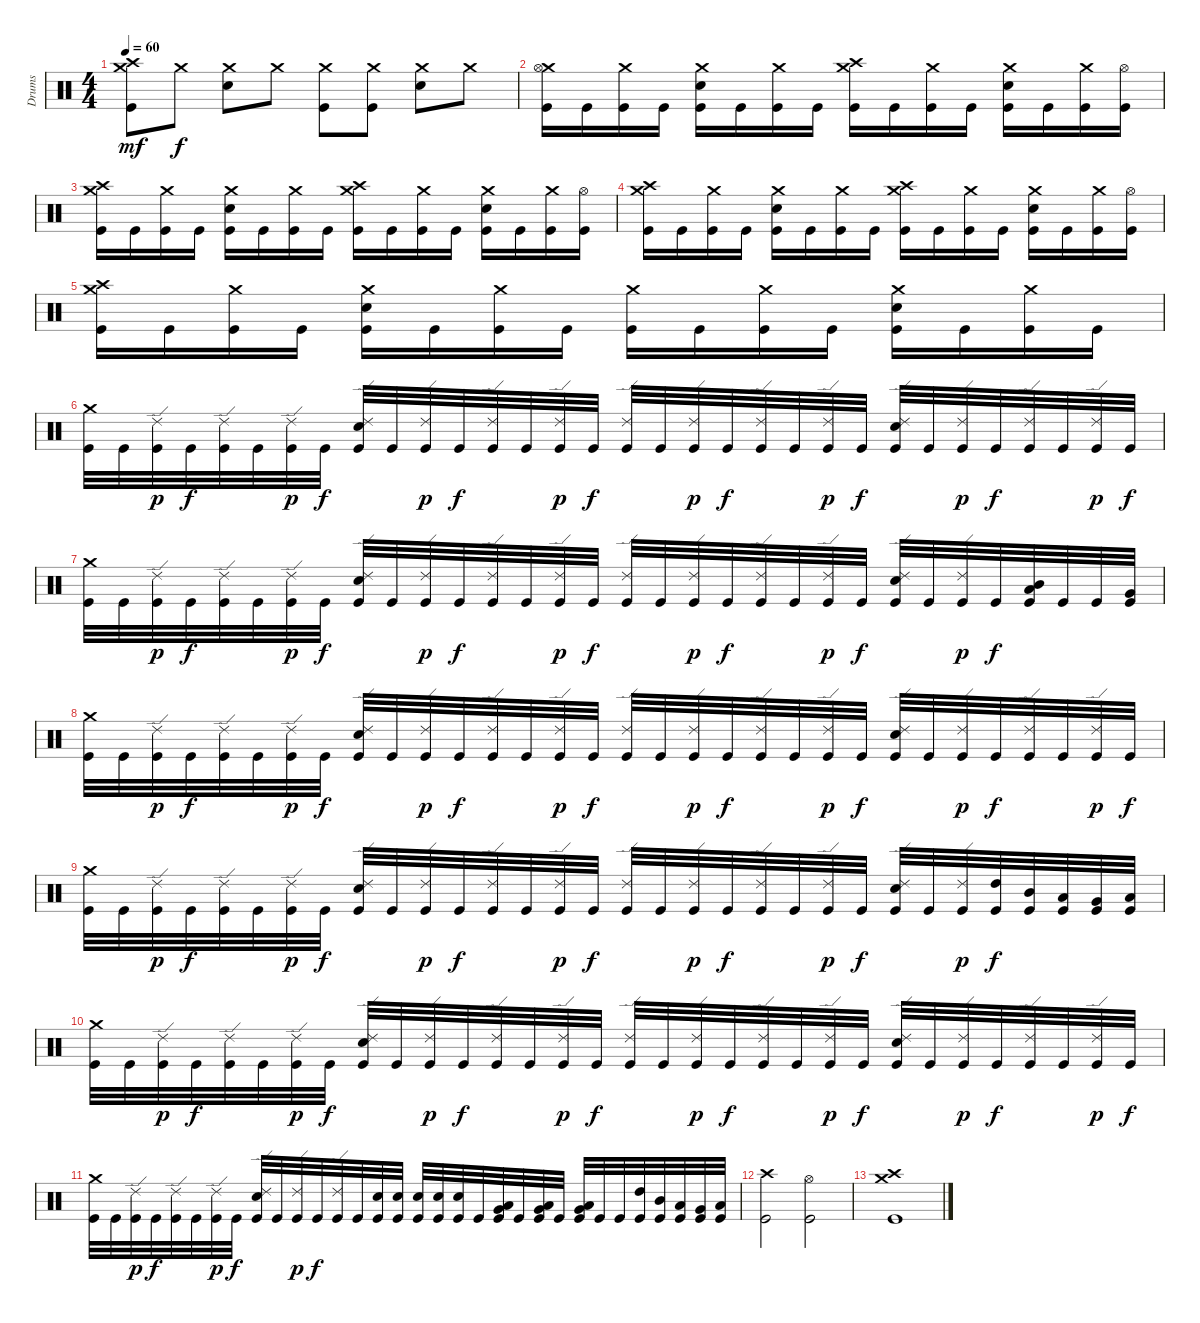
\track ("Drums" "Drums") {instrument percussion}
\staff {score}
\articulation defaults
\ts (4 4)
\tempo 60
\clef neutral
\ks c
("Crash medium (hit)" "Crash high (hit)" "Kick (hit)").8{dy mf} "Crash medium (hit)".8{dy f} ("Crash medium (hit)" "Snare (hit) 2").8 "Crash medium (hit)".8 ("Crash medium (hit)" "Kick (hit)").8 ("Crash medium (hit)" "Kick (hit)").8 ("Crash medium (hit)" "Snare (hit) 2").8 "Crash medium (hit)".8 |
("Crash medium (hit)" "Hi-Hat (open)" "Kick (hit)").16 "Kick (hit)".16 ("Crash medium (hit)" "Kick (hit)").16 "Kick (hit)".16 ("Crash medium (hit)" "Snare (hit) 2" "Kick (hit)").16 "Kick (hit)".16 ("Crash medium (hit)" "Kick (hit)").16 "Kick (hit)".16 ("Crash high (hit)" "Crash medium (hit)" "Kick (hit)").16 "Kick (hit)".16 ("Crash medium (hit)" "Kick (hit)").16 "Kick (hit)".16 ("Crash medium (hit)" "Snare (hit) 2" "Kick (hit)").16 "Kick (hit)".16 ("Crash medium (hit)" "Kick (hit)").16 ("Hi-Hat (open)" "Kick (hit)").16 |
("Crash medium (hit)" "Crash high (hit)" "Kick (hit)").16 "Kick (hit)".16 ("Crash medium (hit)" "Kick (hit)").16 "Kick (hit)".16 ("Crash medium (hit)" "Snare (hit) 2" "Kick (hit)").16 "Kick (hit)".16 ("Crash medium (hit)" "Kick (hit)").16 "Kick (hit)".16 ("Crash high (hit)" "Crash medium (hit)" "Kick (hit)").16 "Kick (hit)".16 ("Crash medium (hit)" "Kick (hit)").16 "Kick (hit)".16 ("Crash medium (hit)" "Snare (hit) 2" "Kick (hit)").16 "Kick (hit)".16 ("Crash medium (hit)" "Kick (hit)").16 ("Hi-Hat (open)" "Kick (hit)").16 |
("Crash medium (hit)" "Crash high (hit)" "Kick (hit)").16 "Kick (hit)".16 ("Crash medium (hit)" "Kick (hit)").16 "Kick (hit)".16 ("Crash medium (hit)" "Snare (hit) 2" "Kick (hit)").16 "Kick (hit)".16 ("Crash medium (hit)" "Kick (hit)").16 "Kick (hit)".16 ("Crash high (hit)" "Crash medium (hit)" "Kick (hit)").16 "Kick (hit)".16 ("Crash medium (hit)" "Kick (hit)").16 "Kick (hit)".16 ("Crash medium (hit)" "Snare (hit) 2" "Kick (hit)").16 "Kick (hit)".16 ("Crash medium (hit)" "Kick (hit)").16 ("Hi-Hat (open)" "Kick (hit)").16 |
("Crash medium (hit)" "Crash high (hit)" "Kick (hit)").16 "Kick (hit)".16 ("Crash medium (hit)" "Kick (hit)").16 "Kick (hit)".16 ("Crash medium (hit)" "Snare (hit) 2" "Kick (hit)").16 "Kick (hit)".16 ("Crash medium (hit)" "Kick (hit)").16 "Kick (hit)".16 ("Crash medium (hit)" "Kick (hit)").16 "Kick (hit)".16 ("Crash medium (hit)" "Kick (hit)").16 "Kick (hit)".16 ("Crash medium (hit)" "Snare (hit) 2" "Kick (hit)").16 "Kick (hit)".16 ("Crash medium (hit)" "Kick (hit)").16 "Kick (hit)".16 |
("Crash medium (hit)" "Kick (hit)").32 "Kick (hit)".32 ("Ride (edge) 2" "Kick (hit)").32{dy p} "Kick (hit)".32{dy f} ("Ride (edge) 2" "Kick (hit)").32 "Kick (hit)".32 ("Ride (edge) 2" "Kick (hit)").32{dy p} "Kick (hit)".32{dy f} ("Ride (edge) 2" "Snare (hit) 2" "Kick (hit)").32 "Kick (hit)".32 ("Ride (edge) 2" "Kick (hit)").32{dy p} "Kick (hit)".32{dy f} ("Ride (edge) 2" "Kick (hit)").32 "Kick (hit)".32 ("Ride (edge) 2" "Kick (hit)").32{dy p} "Kick (hit)".32{dy f} ("Ride (edge) 2" "Kick (hit)").32 "Kick (hit)".32 ("Ride (edge) 2" "Kick (hit)").32{dy p} "Kick (hit)".32{dy f} ("Ride (edge) 2" "Kick (hit)").32 "Kick (hit)".32 ("Ride (edge) 2" "Kick (hit)").32{dy p} "Kick (hit)".32{dy f} ("Ride (edge) 2" "Snare (hit) 2" "Kick (hit)").32 "Kick (hit)".32 ("Ride (edge) 2" "Kick (hit)").32{dy p} "Kick (hit)".32{dy f} ("Ride (edge) 2" "Kick (hit)").32 "Kick (hit)".32 ("Ride (edge) 2" "Kick (hit)").32{dy p} "Kick (hit)".32{dy f} |
("Crash medium (hit)" "Kick (hit)").32 "Kick (hit)".32 ("Ride (edge) 2" "Kick (hit)").32{dy p} "Kick (hit)".32{dy f} ("Ride (edge) 2" "Kick (hit)").32 "Kick (hit)".32 ("Ride (edge) 2" "Kick (hit)").32{dy p} "Kick (hit)".32{dy f} ("Ride (edge) 2" "Snare (hit) 2" "Kick (hit)").32 "Kick (hit)".32 ("Ride (edge) 2" "Kick (hit)").32{dy p} "Kick (hit)".32{dy f} ("Ride (edge) 2" "Kick (hit)").32 "Kick (hit)".32 ("Ride (edge) 2" "Kick (hit)").32{dy p} "Kick (hit)".32{dy f} ("Ride (edge) 2" "Kick (hit)").32 "Kick (hit)".32 ("Ride (edge) 2" "Kick (hit)").32{dy p} "Kick (hit)".32{dy f} ("Ride (edge) 2" "Kick (hit)").32 "Kick (hit)".32 ("Ride (edge) 2" "Kick (hit)").32{dy p} "Kick (hit)".32{dy f} ("Ride (edge) 2" "Snare (hit) 2" "Kick (hit)").32 "Kick (hit)".32 ("Ride (edge) 2" "Kick (hit)").32{dy p} "Kick (hit)".32{dy f} ("Mid Tom (hit)" "Low Tom (hit)" "Kick (hit)").32 "Kick (hit)".32 "Kick (hit)".32 ("Very Low Tom (hit)" "Kick (hit)").32 |
("Crash medium (hit)" "Kick (hit)").32 "Kick (hit)".32 ("Ride (edge) 2" "Kick (hit)").32{dy p} "Kick (hit)".32{dy f} ("Ride (edge) 2" "Kick (hit)").32 "Kick (hit)".32 ("Ride (edge) 2" "Kick (hit)").32{dy p} "Kick (hit)".32{dy f} ("Ride (edge) 2" "Snare (hit) 2" "Kick (hit)").32 "Kick (hit)".32 ("Ride (edge) 2" "Kick (hit)").32{dy p} "Kick (hit)".32{dy f} ("Ride (edge) 2" "Kick (hit)").32 "Kick (hit)".32 ("Ride (edge) 2" "Kick (hit)").32{dy p} "Kick (hit)".32{dy f} ("Ride (edge) 2" "Kick (hit)").32 "Kick (hit)".32 ("Ride (edge) 2" "Kick (hit)").32{dy p} "Kick (hit)".32{dy f} ("Ride (edge) 2" "Kick (hit)").32 "Kick (hit)".32 ("Ride (edge) 2" "Kick (hit)").32{dy p} "Kick (hit)".32{dy f} ("Ride (edge) 2" "Snare (hit) 2" "Kick (hit)").32 "Kick (hit)".32 ("Ride (edge) 2" "Kick (hit)").32{dy p} "Kick (hit)".32{dy f} ("Ride (edge) 2" "Kick (hit)").32 "Kick (hit)".32 ("Ride (edge) 2" "Kick (hit)").32{dy p} "Kick (hit)".32{dy f} |
("Crash medium (hit)" "Kick (hit)").32 "Kick (hit)".32 ("Ride (edge) 2" "Kick (hit)").32{dy p} "Kick (hit)".32{dy f} ("Ride (edge) 2" "Kick (hit)").32 "Kick (hit)".32 ("Ride (edge) 2" "Kick (hit)").32{dy p} "Kick (hit)".32{dy f} ("Ride (edge) 2" "Snare (hit) 2" "Kick (hit)").32 "Kick (hit)".32 ("Ride (edge) 2" "Kick (hit)").32{dy p} "Kick (hit)".32{dy f} ("Ride (edge) 2" "Kick (hit)").32 "Kick (hit)".32 ("Ride (edge) 2" "Kick (hit)").32{dy p} "Kick (hit)".32{dy f} ("Ride (edge) 2" "Kick (hit)").32 "Kick (hit)".32 ("Ride (edge) 2" "Kick (hit)").32{dy p} "Kick (hit)".32{dy f} ("Ride (edge) 2" "Kick (hit)").32 "Kick (hit)".32 ("Ride (edge) 2" "Kick (hit)").32{dy p} "Kick (hit)".32{dy f} ("Ride (edge) 2" "Snare (hit) 2" "Kick (hit)").32 "Kick (hit)".32 ("Ride (edge) 2" "Kick (hit)").32{dy p} ("High Tom (hit)" "Kick (hit)").32{dy f} ("Mid Tom (hit)" "Kick (hit)").32 ("Low Tom (hit)" "Kick (hit)").32 ("Very Low Tom (hit)" "Kick (hit)").32 ("Low Floor Tom (hit)" "Kick (hit)").32 |
("Crash medium (hit)" "Kick (hit)").32 "Kick (hit)".32 ("Ride (edge) 2" "Kick (hit)").32{dy p} "Kick (hit)".32{dy f} ("Ride (edge) 2" "Kick (hit)").32 "Kick (hit)".32 ("Ride (edge) 2" "Kick (hit)").32{dy p} "Kick (hit)".32{dy f} ("Ride (edge) 2" "Snare (hit) 2" "Kick (hit)").32 "Kick (hit)".32 ("Ride (edge) 2" "Kick (hit)").32{dy p} "Kick (hit)".32{dy f} ("Ride (edge) 2" "Kick (hit)").32 "Kick (hit)".32 ("Ride (edge) 2" "Kick (hit)").32{dy p} "Kick (hit)".32{dy f} ("Ride (edge) 2" "Kick (hit)").32 "Kick (hit)".32 ("Ride (edge) 2" "Kick (hit)").32{dy p} "Kick (hit)".32{dy f} ("Ride (edge) 2" "Kick (hit)").32 "Kick (hit)".32 ("Ride (edge) 2" "Kick (hit)").32{dy p} "Kick (hit)".32{dy f} ("Ride (edge) 2" "Snare (hit) 2" "Kick (hit)").32 "Kick (hit)".32 ("Ride (edge) 2" "Kick (hit)").32{dy p} "Kick (hit)".32{dy f} ("Ride (edge) 2" "Kick (hit)").32 "Kick (hit)".32 ("Ride (edge) 2" "Kick (hit)").32{dy p} "Kick (hit)".32{dy f} |
("Crash medium (hit)" "Kick (hit)").32 "Kick (hit)".32 ("Ride (edge) 2" "Kick (hit)").32{dy p} "Kick (hit)".32{dy f} ("Ride (edge) 2" "Kick (hit)").32 "Kick (hit)".32 ("Ride (edge) 2" "Kick (hit)").32{dy p} "Kick (hit)".32{dy f} ("Ride (edge) 2" "Snare (hit) 2" "Kick (hit)").32 "Kick (hit)".32 ("Ride (edge) 2" "Kick (hit)").32{dy p} "Kick (hit)".32{dy f} ("Ride (edge) 2" "Kick (hit)").32 "Kick (hit)".32 ("Snare (hit) 2" "Kick (hit)").32 ("Snare (hit) 2" "Kick (hit)").32 ("Snare (hit) 2" "Kick (hit)").32 ("Snare (hit) 2" "Kick (hit)").32 ("Snare (hit) 2" "Kick (hit)").32 "Kick (hit)".32 ("Low Tom (hit)" "Very Low Tom (hit)" "Kick (hit)").32 "Kick (hit)".32 ("Low Tom (hit)" "Very Low Tom (hit)" "Kick (hit)").32 "Kick (hit)".32 ("Low Tom (hit)" "Very Low Tom (hit)" "Kick (hit)").32 "Kick (hit)".32 "Kick (hit)".32 ("High Tom (hit)" "Kick (hit)").32 ("Mid Tom (hit)" "Kick (hit)").32 ("Low Tom (hit)" "Kick (hit)").32 ("Very Low Tom (hit)" "Kick (hit)").32 ("Low Floor Tom (hit)" "Kick (hit)").32 |
("Crash high (hit)" "Kick (hit)").2 ("Hi-Hat (open)" "Kick (hit)").2 |
("Crash medium (hit)" "Crash high (hit)" "Kick (hit)").1
